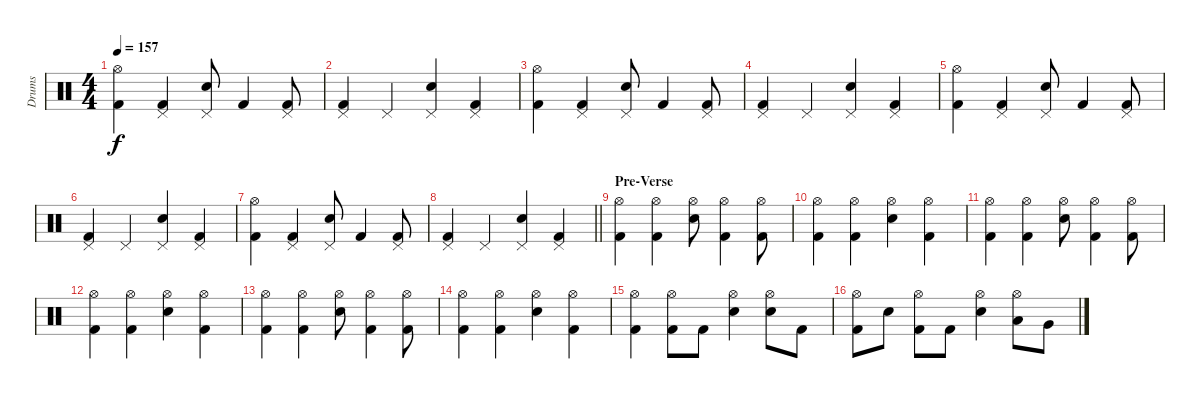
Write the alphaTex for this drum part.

\track ("Drums" "Drums") {instrument percussion}
\staff {score}
\articulation defaults
\ts (4 4)
\tempo 157
\clef neutral
\ks c
("Hi-Hat (open)" "Kick (hit) 2").4{dy f} ("Pedal Hi-Hat (hit)" "Kick (hit) 2").4 ("Pedal Hi-Hat (hit)" "Electric Snare (hit)").8 "Kick (hit) 2".4 ("Pedal Hi-Hat (hit)" "Kick (hit) 2").8 |
("Pedal Hi-Hat (hit)" "Kick (hit) 2").4 "Pedal Hi-Hat (hit)".4 ("Pedal Hi-Hat (hit)" "Electric Snare (hit)").4 ("Pedal Hi-Hat (hit)" "Kick (hit) 2").4 |
("Hi-Hat (open)" "Kick (hit) 2").4 ("Pedal Hi-Hat (hit)" "Kick (hit) 2").4 ("Pedal Hi-Hat (hit)" "Electric Snare (hit)").8 "Kick (hit) 2".4 ("Pedal Hi-Hat (hit)" "Kick (hit) 2").8 |
("Pedal Hi-Hat (hit)" "Kick (hit) 2").4 "Pedal Hi-Hat (hit)".4 ("Pedal Hi-Hat (hit)" "Electric Snare (hit)").4 ("Pedal Hi-Hat (hit)" "Kick (hit) 2").4 |
("Hi-Hat (open)" "Kick (hit) 2").4 ("Pedal Hi-Hat (hit)" "Kick (hit) 2").4 ("Pedal Hi-Hat (hit)" "Electric Snare (hit)").8 "Kick (hit) 2".4 ("Pedal Hi-Hat (hit)" "Kick (hit) 2").8 |
("Pedal Hi-Hat (hit)" "Kick (hit) 2").4 "Pedal Hi-Hat (hit)".4 ("Pedal Hi-Hat (hit)" "Electric Snare (hit)").4 ("Pedal Hi-Hat (hit)" "Kick (hit) 2").4 |
("Hi-Hat (open)" "Kick (hit) 2").4 ("Pedal Hi-Hat (hit)" "Kick (hit) 2").4 ("Pedal Hi-Hat (hit)" "Electric Snare (hit)").8 "Kick (hit) 2".4 ("Pedal Hi-Hat (hit)" "Kick (hit) 2").8 |
\barLineRight lightlight
("Pedal Hi-Hat (hit)" "Kick (hit) 2").4 "Pedal Hi-Hat (hit)".4 ("Pedal Hi-Hat (hit)" "Electric Snare (hit)").4 ("Pedal Hi-Hat (hit)" "Kick (hit) 2").4 |
\section ("" "Pre-Verse")
("Hi-Hat (open)" "Kick (hit) 2").4 ("Hi-Hat (open)" "Kick (hit) 2").4 ("Hi-Hat (open)" "Electric Snare (hit)").8 ("Hi-Hat (open)" "Kick (hit) 2").4 ("Hi-Hat (open)" "Kick (hit) 2").8 |
("Hi-Hat (open)" "Kick (hit) 2").4 ("Hi-Hat (open)" "Kick (hit) 2").4 ("Hi-Hat (open)" "Electric Snare (hit)").4 ("Hi-Hat (open)" "Kick (hit) 2").4 |
("Hi-Hat (open)" "Kick (hit) 2").4 ("Hi-Hat (open)" "Kick (hit) 2").4 ("Hi-Hat (open)" "Electric Snare (hit)").8 ("Hi-Hat (open)" "Kick (hit) 2").4 ("Hi-Hat (open)" "Kick (hit) 2").8 |
("Hi-Hat (open)" "Kick (hit) 2").4 ("Hi-Hat (open)" "Kick (hit) 2").4 ("Hi-Hat (open)" "Electric Snare (hit)").4 ("Hi-Hat (open)" "Kick (hit) 2").4 |
("Hi-Hat (open)" "Kick (hit) 2").4 ("Hi-Hat (open)" "Kick (hit) 2").4 ("Hi-Hat (open)" "Electric Snare (hit)").8 ("Hi-Hat (open)" "Kick (hit) 2").4 ("Hi-Hat (open)" "Kick (hit) 2").8 |
("Hi-Hat (open)" "Kick (hit) 2").4 ("Hi-Hat (open)" "Kick (hit) 2").4 ("Hi-Hat (open)" "Electric Snare (hit)").4 ("Hi-Hat (open)" "Kick (hit) 2").4 |
("Hi-Hat (open)" "Kick (hit) 2").4 ("Hi-Hat (open)" "Kick (hit) 2").8 "Kick (hit) 2".8 ("Hi-Hat (open)" "Electric Snare (hit)").4 ("Hi-Hat (open)" "Electric Snare (hit)").8 "Kick (hit) 2".8 |
("Hi-Hat (open)" "Kick (hit) 2").8 "Electric Snare (hit)".8 ("Hi-Hat (open)" "Kick (hit) 2").8 "Kick (hit) 2".8 ("Hi-Hat (open)" "Electric Snare (hit)").4 ("Hi-Hat (open)" "Low Tom (hit)").8 "Very Low Tom (hit)".8
